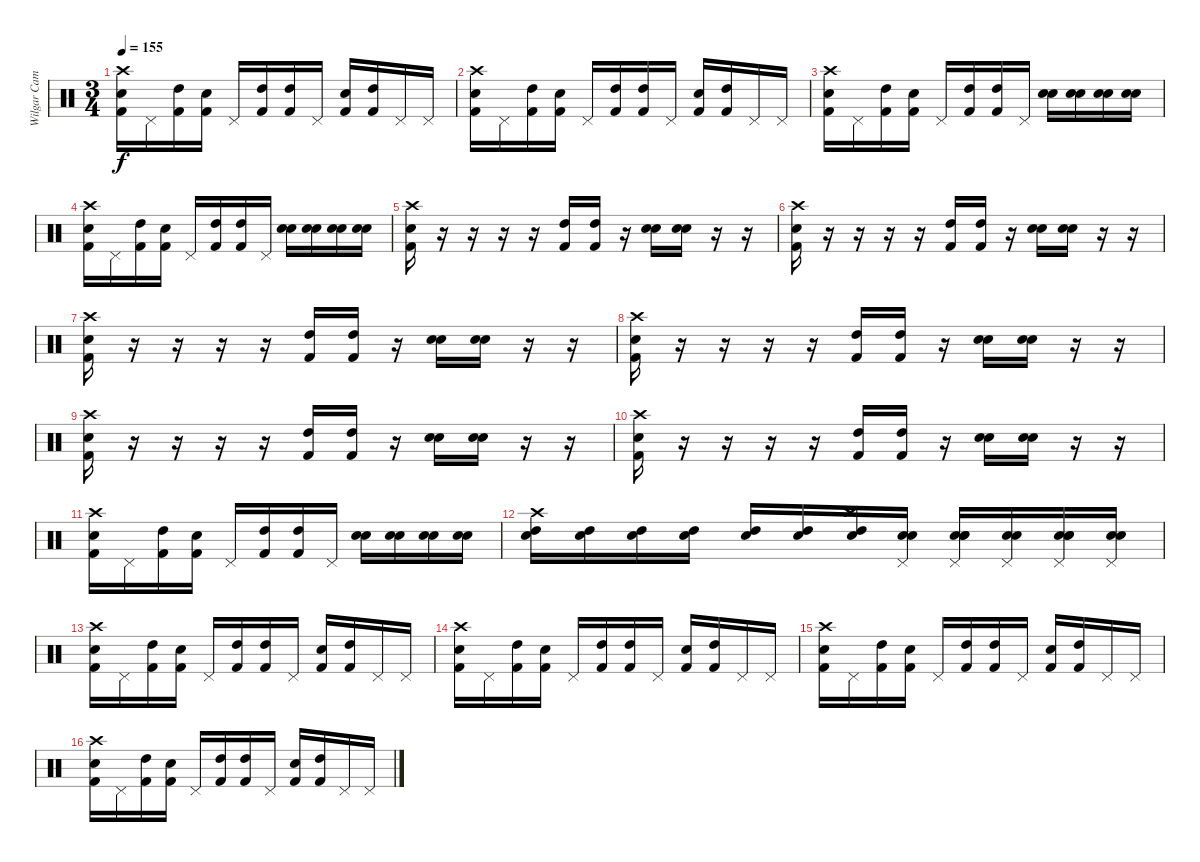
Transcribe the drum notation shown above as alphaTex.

\track ("Wilgar Campbell" "Wilgar Cam") {instrument percussion}
\staff {score}
\articulation defaults
\ts (3 4)
\tempo 155
\clef neutral
\ks c
("Kick (hit) 2" "Snare (hit) 2" "Crash high (hit)").16{dy f} "Pedal Hi-Hat (hit)".16 ("Kick (hit) 2" "High Tom (hit)").16 ("Kick (hit) 2" "Snare (hit) 2").16 "Pedal Hi-Hat (hit)".16 ("High Tom (hit)" "Kick (hit) 2").16 ("High Tom (hit)" "Kick (hit) 2").16 "Pedal Hi-Hat (hit)".16 ("Electric Snare (hit)" "Kick (hit) 2").16 ("High Tom (hit)" "Kick (hit) 2").16 "Pedal Hi-Hat (hit)".16 "Pedal Hi-Hat (hit)".16 |
("Kick (hit) 2" "Snare (hit) 2" "Crash high (hit)").16 "Pedal Hi-Hat (hit)".16 ("Kick (hit) 2" "High Tom (hit)").16 ("Kick (hit) 2" "Snare (hit) 2").16 "Pedal Hi-Hat (hit)".16 ("High Tom (hit)" "Kick (hit) 2").16 ("High Tom (hit)" "Kick (hit) 2").16 "Pedal Hi-Hat (hit)".16 ("Electric Snare (hit)" "Kick (hit) 2").16 ("High Tom (hit)" "Kick (hit) 2").16 "Pedal Hi-Hat (hit)".16 "Pedal Hi-Hat (hit)".16 |
("Kick (hit) 2" "Snare (hit) 2" "Crash high (hit)").16 "Pedal Hi-Hat (hit)".16 ("Kick (hit) 2" "High Tom (hit)").16 ("Kick (hit) 2" "Snare (hit) 2").16 "Pedal Hi-Hat (hit)".16 ("High Tom (hit)" "Kick (hit) 2").16 ("High Tom (hit)" "Kick (hit) 2").16 "Pedal Hi-Hat (hit)".16 ("Electric Snare (hit)" "Electric Snare (hit)").16 ("Electric Snare (hit)" "Electric Snare (hit)").16 ("Electric Snare (hit)" "Electric Snare (hit)").16 ("Electric Snare (hit)" "Electric Snare (hit)").16 |
("Kick (hit) 2" "Snare (hit) 2" "Crash high (hit)").16 "Pedal Hi-Hat (hit)".16 ("Kick (hit) 2" "High Tom (hit)").16 ("Kick (hit) 2" "Snare (hit) 2").16 "Pedal Hi-Hat (hit)".16 ("High Tom (hit)" "Kick (hit) 2").16 ("High Tom (hit)" "Kick (hit) 2").16 "Pedal Hi-Hat (hit)".16 ("Electric Snare (hit)" "Electric Snare (hit)").16 ("Electric Snare (hit)" "Electric Snare (hit)").16 ("Electric Snare (hit)" "Electric Snare (hit)").16 ("Electric Snare (hit)" "Electric Snare (hit)").16 |
("Kick (hit) 2" "Snare (hit) 2" "Crash high (hit)").16 r.16 r.16 r.16 r.16 ("High Tom (hit)" "Kick (hit) 2").16 ("High Tom (hit)" "Kick (hit) 2").16 r.16 ("Electric Snare (hit)" "Electric Snare (hit)").16 ("Electric Snare (hit)" "Electric Snare (hit)").16 r.16 r.16 |
("Kick (hit) 2" "Snare (hit) 2" "Crash high (hit)").16 r.16 r.16 r.16 r.16 ("High Tom (hit)" "Kick (hit) 2").16 ("High Tom (hit)" "Kick (hit) 2").16 r.16 ("Electric Snare (hit)" "Electric Snare (hit)").16 ("Electric Snare (hit)" "Electric Snare (hit)").16 r.16 r.16 |
("Kick (hit) 2" "Snare (hit) 2" "Crash high (hit)").16 r.16 r.16 r.16 r.16 ("High Tom (hit)" "Kick (hit) 2").16 ("High Tom (hit)" "Kick (hit) 2").16 r.16 ("Electric Snare (hit)" "Electric Snare (hit)").16 ("Electric Snare (hit)" "Electric Snare (hit)").16 r.16 r.16 |
("Kick (hit) 2" "Snare (hit) 2" "Crash high (hit)").16 r.16 r.16 r.16 r.16 ("High Tom (hit)" "Kick (hit) 2").16 ("High Tom (hit)" "Kick (hit) 2").16 r.16 ("Electric Snare (hit)" "Electric Snare (hit)").16 ("Electric Snare (hit)" "Electric Snare (hit)").16 r.16 r.16 |
("Kick (hit) 2" "Snare (hit) 2" "Crash high (hit)").16 r.16 r.16 r.16 r.16 ("High Tom (hit)" "Kick (hit) 2").16 ("High Tom (hit)" "Kick (hit) 2").16 r.16 ("Electric Snare (hit)" "Electric Snare (hit)").16 ("Electric Snare (hit)" "Electric Snare (hit)").16 r.16 r.16 |
("Kick (hit) 2" "Snare (hit) 2" "Crash high (hit)").16 r.16 r.16 r.16 r.16 ("High Tom (hit)" "Kick (hit) 2").16 ("High Tom (hit)" "Kick (hit) 2").16 r.16 ("Electric Snare (hit)" "Electric Snare (hit)").16 ("Electric Snare (hit)" "Electric Snare (hit)").16 r.16 r.16 |
("Kick (hit) 2" "Snare (hit) 2" "Crash high (hit)").16 "Pedal Hi-Hat (hit)".16 ("Kick (hit) 2" "High Tom (hit)").16 ("Kick (hit) 2" "Snare (hit) 2").16 "Pedal Hi-Hat (hit)".16 ("High Tom (hit)" "Kick (hit) 2").16 ("High Tom (hit)" "Kick (hit) 2").16 "Pedal Hi-Hat (hit)".16 ("Electric Snare (hit)" "Electric Snare (hit)").16 ("Electric Snare (hit)" "Electric Snare (hit)").16 ("Electric Snare (hit)" "Electric Snare (hit)").16 ("Electric Snare (hit)" "Electric Snare (hit)").16 |
("Crash high (hit)" "High Tom (hit)" "Snare (hit) 2").16 ("High Tom (hit)" "Snare (hit) 2").16 ("High Tom (hit)" "Snare (hit) 2").16 ("High Tom (hit)" "Snare (hit) 2").16 ("High Tom (hit)" "Snare (hit) 2").16 ("High Tom (hit)" "Snare (hit) 2").16 ("Crash high (hit)" "High Tom (hit)" "Snare (hit) 2").16 ("Electric Snare (hit)" "Electric Snare (hit)" "Pedal Hi-Hat (hit)").16 ("Electric Snare (hit)" "Electric Snare (hit)" "Snare (hit) 2" "Pedal Hi-Hat (hit)").16 ("Electric Snare (hit)" "Electric Snare (hit)" "Pedal Hi-Hat (hit)").16 ("Electric Snare (hit)" "Electric Snare (hit)" "Snare (hit) 2" "Pedal Hi-Hat (hit)").16 ("Electric Snare (hit)" "Electric Snare (hit)" "Pedal Hi-Hat (hit)").16 |
("Kick (hit) 2" "Snare (hit) 2" "Crash high (hit)").16 "Pedal Hi-Hat (hit)".16 ("Kick (hit) 2" "High Tom (hit)").16 ("Kick (hit) 2" "Snare (hit) 2").16 "Pedal Hi-Hat (hit)".16 ("High Tom (hit)" "Kick (hit) 2").16 ("High Tom (hit)" "Kick (hit) 2").16 "Pedal Hi-Hat (hit)".16 ("Electric Snare (hit)" "Kick (hit) 2").16 ("High Tom (hit)" "Kick (hit) 2").16 "Pedal Hi-Hat (hit)".16 "Pedal Hi-Hat (hit)".16 |
("Kick (hit) 2" "Snare (hit) 2" "Crash high (hit)").16 "Pedal Hi-Hat (hit)".16 ("Kick (hit) 2" "High Tom (hit)").16 ("Kick (hit) 2" "Snare (hit) 2").16 "Pedal Hi-Hat (hit)".16 ("High Tom (hit)" "Kick (hit) 2").16 ("High Tom (hit)" "Kick (hit) 2").16 "Pedal Hi-Hat (hit)".16 ("Electric Snare (hit)" "Kick (hit) 2").16 ("High Tom (hit)" "Kick (hit) 2").16 "Pedal Hi-Hat (hit)".16 "Pedal Hi-Hat (hit)".16 |
("Kick (hit) 2" "Snare (hit) 2" "Crash high (hit)").16 "Pedal Hi-Hat (hit)".16 ("Kick (hit) 2" "High Tom (hit)").16 ("Kick (hit) 2" "Snare (hit) 2").16 "Pedal Hi-Hat (hit)".16 ("High Tom (hit)" "Kick (hit) 2").16 ("High Tom (hit)" "Kick (hit) 2").16 "Pedal Hi-Hat (hit)".16 ("Electric Snare (hit)" "Kick (hit) 2").16 ("High Tom (hit)" "Kick (hit) 2").16 "Pedal Hi-Hat (hit)".16 "Pedal Hi-Hat (hit)".16 |
("Kick (hit) 2" "Snare (hit) 2" "Crash high (hit)").16 "Pedal Hi-Hat (hit)".16 ("Kick (hit) 2" "High Tom (hit)").16 ("Kick (hit) 2" "Snare (hit) 2").16 "Pedal Hi-Hat (hit)".16 ("High Tom (hit)" "Kick (hit) 2").16 ("High Tom (hit)" "Kick (hit) 2").16 "Pedal Hi-Hat (hit)".16 ("Electric Snare (hit)" "Kick (hit) 2").16 ("High Tom (hit)" "Kick (hit) 2").16 "Pedal Hi-Hat (hit)".16 "Pedal Hi-Hat (hit)".16
